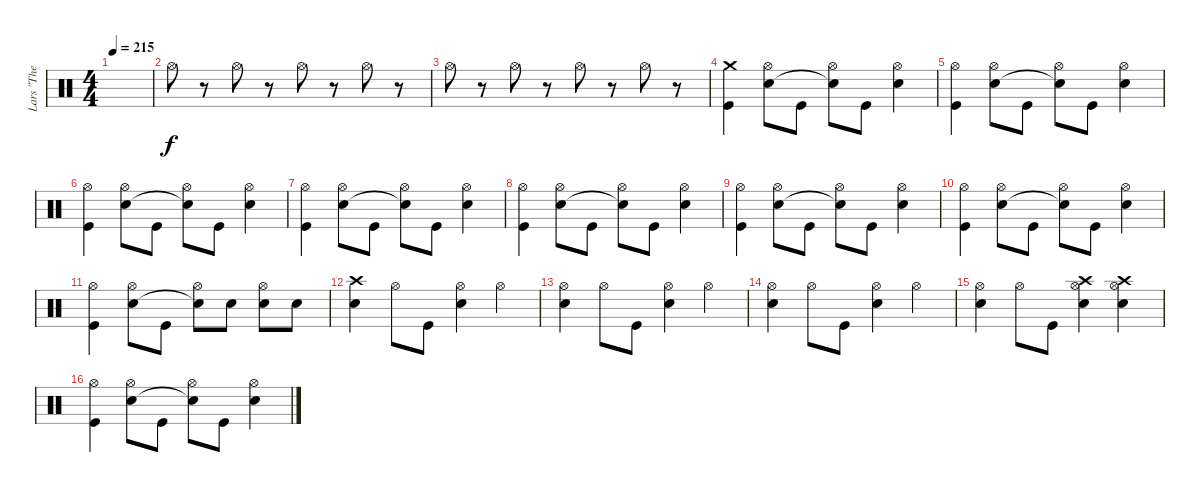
\track ("Lars \"The Antichrist\" Ulrich" "Lars \"The ") {instrument percussion}
\staff {score}
\articulation defaults
\ts (4 4)
\tempo 215
\clef neutral
\ks c
|
"Hi-Hat (open)".8 r.8 "Hi-Hat (open)".8 r.8 "Hi-Hat (open)".8 r.8 "Hi-Hat (open)".8 r.8 |
"Hi-Hat (open)".8 r.8 "Hi-Hat (open)".8 r.8 "Hi-Hat (open)".8 r.8 "Hi-Hat (open)".8 r.8 |
("Crash medium (hit)" "Kick (hit)").4{dy f} ("Hi-Hat (open)" "Electric Snare (hit)").8 "Kick (hit)".8 ("Hi-Hat (open)" "Snare (hit)"{t}).8 "Kick (hit)".8 ("Hi-Hat (open)" "Electric Snare (hit)").4 |
("Hi-Hat (open)" "Kick (hit)").4 ("Hi-Hat (open)" "Electric Snare (hit)").8 "Kick (hit)".8 ("Hi-Hat (open)" "Snare (hit)"{t}).8 "Kick (hit)".8 ("Hi-Hat (open)" "Electric Snare (hit)").4 |
("Hi-Hat (open)" "Kick (hit)").4 ("Hi-Hat (open)" "Electric Snare (hit)").8 "Kick (hit)".8 ("Hi-Hat (open)" "Snare (hit)"{t}).8 "Kick (hit)".8 ("Hi-Hat (open)" "Electric Snare (hit)").4 |
("Hi-Hat (open)" "Kick (hit)").4 ("Hi-Hat (open)" "Electric Snare (hit)").8 "Kick (hit)".8 ("Hi-Hat (open)" "Snare (hit)"{t}).8 "Kick (hit)".8 ("Hi-Hat (open)" "Electric Snare (hit)").4 |
("Hi-Hat (open)" "Kick (hit)").4 ("Hi-Hat (open)" "Electric Snare (hit)").8 "Kick (hit)".8 ("Hi-Hat (open)" "Snare (hit)"{t}).8 "Kick (hit)".8 ("Hi-Hat (open)" "Electric Snare (hit)").4 |
("Hi-Hat (open)" "Kick (hit)").4 ("Hi-Hat (open)" "Electric Snare (hit)").8 "Kick (hit)".8 ("Hi-Hat (open)" "Snare (hit)"{t}).8 "Kick (hit)".8 ("Hi-Hat (open)" "Electric Snare (hit)").4 |
("Hi-Hat (open)" "Kick (hit)").4 ("Hi-Hat (open)" "Electric Snare (hit)").8 "Kick (hit)".8 ("Hi-Hat (open)" "Snare (hit)"{t}).8 "Kick (hit)".8 ("Hi-Hat (open)" "Electric Snare (hit)").4 |
("Hi-Hat (open)" "Kick (hit)").4 ("Hi-Hat (open)" "Electric Snare (hit)").8 "Kick (hit)".8 ("Hi-Hat (open)" "Snare (hit)"{t}).8 "Electric Snare (hit)".8 ("Hi-Hat (open)" "Electric Snare (hit)").8 "Electric Snare (hit)".8 |
("Crash high (hit)" "Electric Snare (hit)").4 "Hi-Hat (open)".8 "Kick (hit)".8 ("Hi-Hat (open)" "Electric Snare (hit)").4 "Hi-Hat (open)".4 |
("Hi-Hat (open)" "Electric Snare (hit)").4 "Hi-Hat (open)".8 "Kick (hit)".8 ("Hi-Hat (open)" "Electric Snare (hit)").4 "Hi-Hat (open)".4 |
("Hi-Hat (open)" "Electric Snare (hit)").4 "Hi-Hat (open)".8 "Kick (hit)".8 ("Hi-Hat (open)" "Electric Snare (hit)").4 "Hi-Hat (open)".4 |
("Hi-Hat (open)" "Electric Snare (hit)").4 "Hi-Hat (open)".8 "Kick (hit)".8 ("Hi-Hat (open)" "Crash high (hit)" "Electric Snare (hit)").4 ("Hi-Hat (open)" "Crash high (hit)" "Electric Snare (hit)").4 |
("Hi-Hat (open)" "Kick (hit)").4 ("Hi-Hat (open)" "Electric Snare (hit)").8 "Kick (hit)".8 ("Hi-Hat (open)" "Snare (hit)"{t}).8 "Kick (hit)".8 ("Hi-Hat (open)" "Electric Snare (hit)").4
